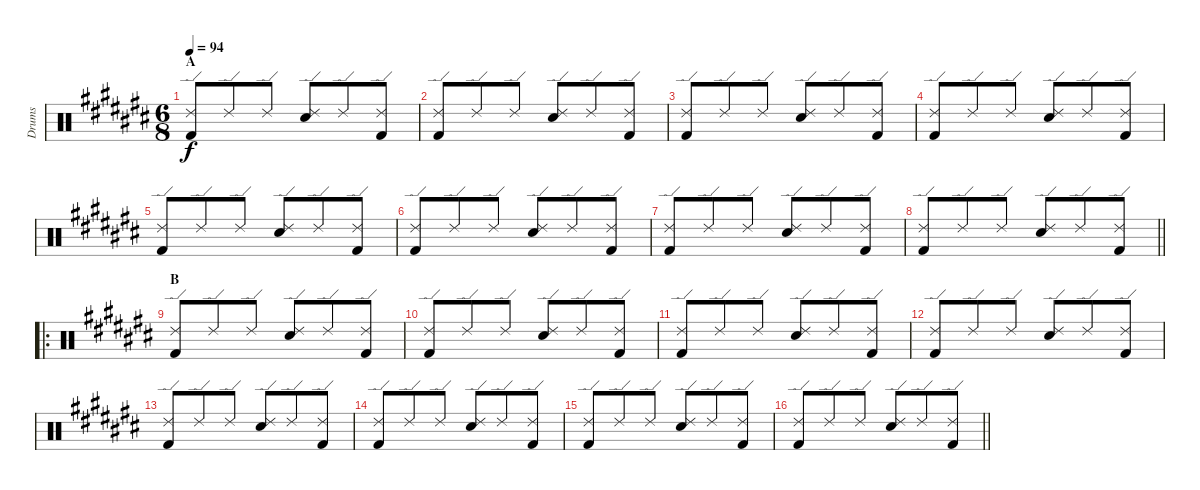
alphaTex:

\track ("Drums" "Drums") {instrument percussion}
\staff {score}
\articulation defaults
\ts (6 8)
\section ("" "A")
\tempo 94
\clef neutral
\ks c#
("Ride (edge) 2" "Kick (hit) 2").8{dy f} "Ride (edge) 2".8 "Ride (edge) 2".8 ("Ride (edge) 2" "Snare (hit) 2").8 "Ride (edge) 2".8 ("Ride (edge) 2" "Kick (hit) 2").8 |
("Ride (edge) 2" "Kick (hit) 2").8 "Ride (edge) 2".8 "Ride (edge) 2".8 ("Ride (edge) 2" "Snare (hit) 2").8 "Ride (edge) 2".8 ("Ride (edge) 2" "Kick (hit) 2").8 |
("Ride (edge) 2" "Kick (hit) 2").8 "Ride (edge) 2".8 "Ride (edge) 2".8 ("Ride (edge) 2" "Snare (hit) 2").8 "Ride (edge) 2".8 ("Ride (edge) 2" "Kick (hit) 2").8 |
("Ride (edge) 2" "Kick (hit) 2").8 "Ride (edge) 2".8 "Ride (edge) 2".8 ("Ride (edge) 2" "Snare (hit) 2").8 "Ride (edge) 2".8 ("Ride (edge) 2" "Kick (hit) 2").8 |
("Ride (edge) 2" "Kick (hit) 2").8 "Ride (edge) 2".8 "Ride (edge) 2".8 ("Ride (edge) 2" "Snare (hit) 2").8 "Ride (edge) 2".8 ("Ride (edge) 2" "Kick (hit) 2").8 |
("Ride (edge) 2" "Kick (hit) 2").8 "Ride (edge) 2".8 "Ride (edge) 2".8 ("Ride (edge) 2" "Snare (hit) 2").8 "Ride (edge) 2".8 ("Ride (edge) 2" "Kick (hit) 2").8 |
("Ride (edge) 2" "Kick (hit) 2").8 "Ride (edge) 2".8 "Ride (edge) 2".8 ("Ride (edge) 2" "Snare (hit) 2").8 "Ride (edge) 2".8 ("Ride (edge) 2" "Kick (hit) 2").8 |
\barLineRight lightlight
("Ride (edge) 2" "Kick (hit) 2").8 "Ride (edge) 2".8 "Ride (edge) 2".8 ("Ride (edge) 2" "Snare (hit) 2").8 "Ride (edge) 2".8 ("Ride (edge) 2" "Kick (hit) 2").8 |
\ro
\section ("" "B")
("Ride (edge) 2" "Kick (hit) 2").8 "Ride (edge) 2".8 "Ride (edge) 2".8 ("Ride (edge) 2" "Snare (hit) 2").8 "Ride (edge) 2".8 ("Ride (edge) 2" "Kick (hit) 2").8 |
("Ride (edge) 2" "Kick (hit) 2").8 "Ride (edge) 2".8 "Ride (edge) 2".8 ("Ride (edge) 2" "Snare (hit) 2").8 "Ride (edge) 2".8 ("Ride (edge) 2" "Kick (hit) 2").8 |
("Ride (edge) 2" "Kick (hit) 2").8 "Ride (edge) 2".8 "Ride (edge) 2".8 ("Ride (edge) 2" "Snare (hit) 2").8 "Ride (edge) 2".8 ("Ride (edge) 2" "Kick (hit) 2").8 |
("Ride (edge) 2" "Kick (hit) 2").8 "Ride (edge) 2".8 "Ride (edge) 2".8 ("Ride (edge) 2" "Snare (hit) 2").8 "Ride (edge) 2".8 ("Ride (edge) 2" "Kick (hit) 2").8 |
("Ride (edge) 2" "Kick (hit) 2").8 "Ride (edge) 2".8 "Ride (edge) 2".8 ("Ride (edge) 2" "Snare (hit) 2").8 "Ride (edge) 2".8 ("Ride (edge) 2" "Kick (hit) 2").8 |
("Ride (edge) 2" "Kick (hit) 2").8 "Ride (edge) 2".8 "Ride (edge) 2".8 ("Ride (edge) 2" "Snare (hit) 2").8 "Ride (edge) 2".8 ("Ride (edge) 2" "Kick (hit) 2").8 |
("Ride (edge) 2" "Kick (hit) 2").8 "Ride (edge) 2".8 "Ride (edge) 2".8 ("Ride (edge) 2" "Snare (hit) 2").8 "Ride (edge) 2".8 ("Ride (edge) 2" "Kick (hit) 2").8 |
\barLineRight lightlight
("Ride (edge) 2" "Kick (hit) 2").8 "Ride (edge) 2".8 "Ride (edge) 2".8 ("Ride (edge) 2" "Snare (hit) 2").8 "Ride (edge) 2".8 ("Ride (edge) 2" "Kick (hit) 2").8
